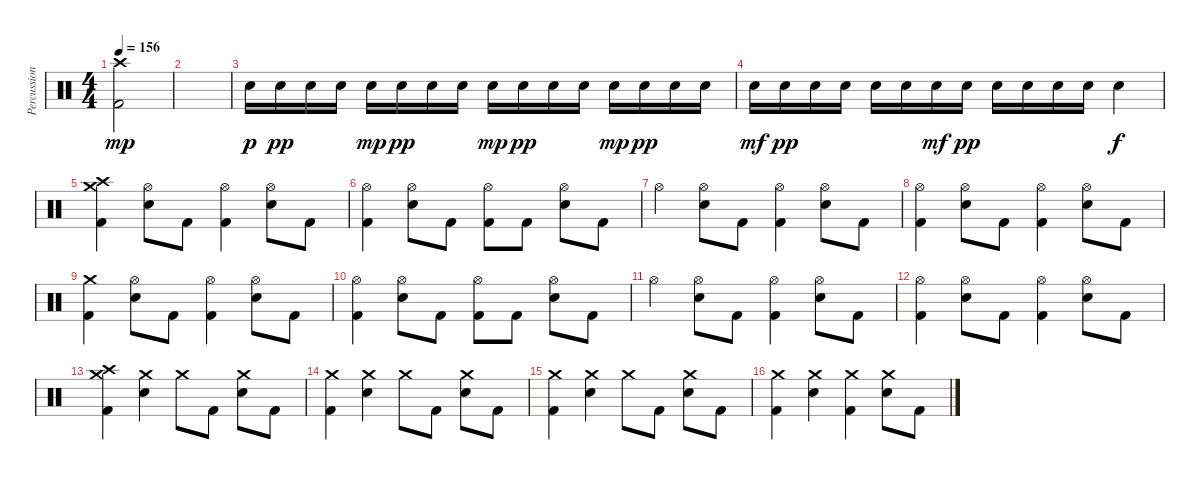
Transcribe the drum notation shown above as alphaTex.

\track ("Percussion" "Percussion") {instrument percussion}
\staff {score}
\articulation defaults
\ts (4 4)
\tempo 156
\clef neutral
\ks c
("Crash high (hit)" "Kick (hit) 2").2{dy mp} |
|
"Electric Snare (hit)".16{dy p} "Electric Snare (hit)".16{dy pp} "Electric Snare (hit)".16 "Electric Snare (hit)".16 "Electric Snare (hit)".16{dy mp} "Electric Snare (hit)".16{dy pp} "Electric Snare (hit)".16 "Electric Snare (hit)".16 "Electric Snare (hit)".16{dy mp} "Electric Snare (hit)".16{dy pp} "Electric Snare (hit)".16 "Electric Snare (hit)".16 "Electric Snare (hit)".16{dy mp} "Electric Snare (hit)".16{dy pp} "Electric Snare (hit)".16 "Electric Snare (hit)".16 |
"Electric Snare (hit)".16{dy mf} "Electric Snare (hit)".16{dy pp} "Electric Snare (hit)".16 "Electric Snare (hit)".16 "Electric Snare (hit)".16 "Electric Snare (hit)".16 "Electric Snare (hit)".16{dy mf} "Electric Snare (hit)".16{dy pp} "Electric Snare (hit)".16 "Electric Snare (hit)".16 "Electric Snare (hit)".16 "Electric Snare (hit)".16 "Electric Snare (hit)".4{dy f} |
("Crash medium (hit)" "Crash high (hit)" "Kick (hit) 2").4 ("Hi-Hat (open)" "Electric Snare (hit)").8 "Kick (hit) 2".8 ("Hi-Hat (open)" "Kick (hit) 2").4 ("Hi-Hat (open)" "Electric Snare (hit)").8 "Kick (hit) 2".8 |
("Hi-Hat (open)" "Kick (hit) 2").4 ("Hi-Hat (open)" "Electric Snare (hit)").8 "Kick (hit) 2".8 ("Hi-Hat (open)" "Kick (hit) 2").8 "Kick (hit) 2".8 ("Hi-Hat (open)" "Electric Snare (hit)").8 "Kick (hit) 2".8 |
"Hi-Hat (open)".4 ("Hi-Hat (open)" "Electric Snare (hit)").8 "Kick (hit) 2".8 ("Hi-Hat (open)" "Kick (hit) 2").4 ("Hi-Hat (open)" "Electric Snare (hit)").8 "Kick (hit) 2".8 |
("Hi-Hat (open)" "Kick (hit) 2").4 ("Hi-Hat (open)" "Electric Snare (hit)").8 "Kick (hit) 2".8 ("Hi-Hat (open)" "Kick (hit) 2").4 ("Hi-Hat (open)" "Electric Snare (hit)").8 "Kick (hit) 2".8 |
("Crash medium (hit)" "Kick (hit) 2").4 ("Hi-Hat (open)" "Electric Snare (hit)").8 "Kick (hit) 2".8 ("Hi-Hat (open)" "Kick (hit) 2").4 ("Hi-Hat (open)" "Electric Snare (hit)").8 "Kick (hit) 2".8 |
("Hi-Hat (open)" "Kick (hit) 2").4 ("Hi-Hat (open)" "Electric Snare (hit)").8 "Kick (hit) 2".8 ("Hi-Hat (open)" "Kick (hit) 2").8 "Kick (hit) 2".8 ("Hi-Hat (open)" "Electric Snare (hit)").8 "Kick (hit) 2".8 |
"Hi-Hat (open)".4 ("Hi-Hat (open)" "Electric Snare (hit)").8 "Kick (hit) 2".8 ("Hi-Hat (open)" "Kick (hit) 2").4 ("Hi-Hat (open)" "Electric Snare (hit)").8 "Kick (hit) 2".8 |
("Hi-Hat (open)" "Kick (hit) 2").4 ("Hi-Hat (open)" "Electric Snare (hit)").8 "Kick (hit) 2".8 ("Hi-Hat (open)" "Kick (hit) 2").4 ("Hi-Hat (open)" "Electric Snare (hit)").8 "Kick (hit) 2".8 |
("Crash high (hit)" "Crash medium (hit)" "Kick (hit) 2").4 ("Crash medium (hit)" "Electric Snare (hit)").4 "Crash medium (hit)".8 "Kick (hit) 2".8 ("Crash medium (hit)" "Electric Snare (hit)").8 "Kick (hit) 2".8 |
("Crash medium (hit)" "Kick (hit) 2").4 ("Crash medium (hit)" "Electric Snare (hit)").4 "Crash medium (hit)".8 "Kick (hit) 2".8 ("Crash medium (hit)" "Electric Snare (hit)").8 "Kick (hit) 2".8 |
("Crash medium (hit)" "Kick (hit) 2").4 ("Crash medium (hit)" "Electric Snare (hit)").4 "Crash medium (hit)".8 "Kick (hit) 2".8 ("Crash medium (hit)" "Electric Snare (hit)").8 "Kick (hit) 2".8 |
("Crash medium (hit)" "Kick (hit) 2").4 ("Crash medium (hit)" "Electric Snare (hit)").4 ("Crash medium (hit)" "Kick (hit) 2").4 ("Crash medium (hit)" "Electric Snare (hit)").8 "Kick (hit) 2".8
